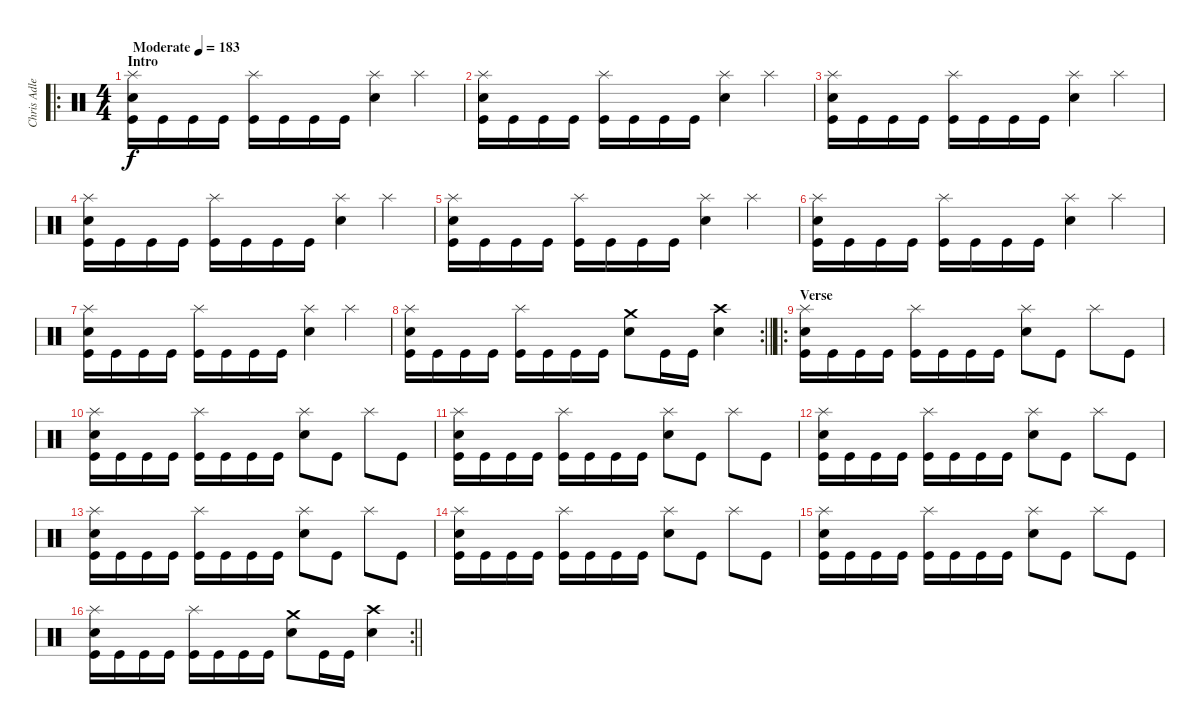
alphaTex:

\track ("Chris Adler" "Chris Adle") {instrument percussion}
\staff {score}
\articulation defaults
\ro
\ts (4 4)
\section ("" "Intro")
\tempo (183 "Moderate")
\clef neutral
\ks c
("Kick (hit)" "Snare (hit) 2" "Splash (hit)").16{dy f} "Kick (hit)".16 "Kick (hit)".16 "Kick (hit)".16 ("Kick (hit)" "Splash (hit)").16 "Kick (hit)".16 "Kick (hit)".16 "Kick (hit)".16 ("Splash (hit)" "Snare (hit) 2").4 "Splash (hit)".4 |
("Kick (hit)" "Snare (hit) 2" "Splash (hit)").16 "Kick (hit)".16 "Kick (hit)".16 "Kick (hit)".16 ("Kick (hit)" "Splash (hit)").16 "Kick (hit)".16 "Kick (hit)".16 "Kick (hit)".16 ("Splash (hit)" "Snare (hit) 2").4 "Splash (hit)".4 |
("Kick (hit)" "Snare (hit) 2" "Splash (hit)").16 "Kick (hit)".16 "Kick (hit)".16 "Kick (hit)".16 ("Kick (hit)" "Splash (hit)").16 "Kick (hit)".16 "Kick (hit)".16 "Kick (hit)".16 ("Splash (hit)" "Snare (hit) 2").4 "Splash (hit)".4 |
("Kick (hit)" "Snare (hit) 2" "Splash (hit)").16 "Kick (hit)".16 "Kick (hit)".16 "Kick (hit)".16 ("Kick (hit)" "Splash (hit)").16 "Kick (hit)".16 "Kick (hit)".16 "Kick (hit)".16 ("Splash (hit)" "Snare (hit) 2").4 "Splash (hit)".4 |
("Kick (hit)" "Snare (hit) 2" "Splash (hit)").16 "Kick (hit)".16 "Kick (hit)".16 "Kick (hit)".16 ("Kick (hit)" "Splash (hit)").16 "Kick (hit)".16 "Kick (hit)".16 "Kick (hit)".16 ("Splash (hit)" "Snare (hit) 2").4 "Splash (hit)".4 |
("Kick (hit)" "Snare (hit) 2" "Splash (hit)").16 "Kick (hit)".16 "Kick (hit)".16 "Kick (hit)".16 ("Kick (hit)" "Splash (hit)").16 "Kick (hit)".16 "Kick (hit)".16 "Kick (hit)".16 ("Splash (hit)" "Snare (hit) 2").4 "Splash (hit)".4 |
("Kick (hit)" "Snare (hit) 2" "Splash (hit)").16 "Kick (hit)".16 "Kick (hit)".16 "Kick (hit)".16 ("Kick (hit)" "Splash (hit)").16 "Kick (hit)".16 "Kick (hit)".16 "Kick (hit)".16 ("Splash (hit)" "Snare (hit) 2").4 "Splash (hit)".4 |
\rc 2
\barLineRight lightlight
("Kick (hit)" "Snare (hit) 2" "Splash (hit)").16 "Kick (hit)".16 "Kick (hit)".16 "Kick (hit)".16 ("Kick (hit)" "Splash (hit)").16 "Kick (hit)".16 "Kick (hit)".16 "Kick (hit)".16 ("Crash medium (hit)" "Snare (hit) 2").8 "Kick (hit)".16 "Kick (hit)".16 ("Crash high (hit)" "Snare (hit) 2").4 |
\ro
\section ("" "Verse")
("Kick (hit)" "Snare (hit) 2" "Splash (hit)").16 "Kick (hit)".16 "Kick (hit)".16 "Kick (hit)".16 ("Kick (hit)" "Splash (hit)").16 "Kick (hit)".16 "Kick (hit)".16 "Kick (hit)".16 ("Splash (hit)" "Snare (hit) 2").8 "Kick (hit)".8 "Splash (hit)".8 "Kick (hit)".8 |
("Kick (hit)" "Snare (hit) 2" "Splash (hit)").16 "Kick (hit)".16 "Kick (hit)".16 "Kick (hit)".16 ("Kick (hit)" "Splash (hit)").16 "Kick (hit)".16 "Kick (hit)".16 "Kick (hit)".16 ("Splash (hit)" "Snare (hit) 2").8 "Kick (hit)".8 "Splash (hit)".8 "Kick (hit)".8 |
("Kick (hit)" "Snare (hit) 2" "Splash (hit)").16 "Kick (hit)".16 "Kick (hit)".16 "Kick (hit)".16 ("Kick (hit)" "Splash (hit)").16 "Kick (hit)".16 "Kick (hit)".16 "Kick (hit)".16 ("Splash (hit)" "Snare (hit) 2").8 "Kick (hit)".8 "Splash (hit)".8 "Kick (hit)".8 |
("Kick (hit)" "Snare (hit) 2" "Splash (hit)").16 "Kick (hit)".16 "Kick (hit)".16 "Kick (hit)".16 ("Kick (hit)" "Splash (hit)").16 "Kick (hit)".16 "Kick (hit)".16 "Kick (hit)".16 ("Splash (hit)" "Snare (hit) 2").8 "Kick (hit)".8 "Splash (hit)".8 "Kick (hit)".8 |
("Kick (hit)" "Snare (hit) 2" "Splash (hit)").16 "Kick (hit)".16 "Kick (hit)".16 "Kick (hit)".16 ("Kick (hit)" "Splash (hit)").16 "Kick (hit)".16 "Kick (hit)".16 "Kick (hit)".16 ("Splash (hit)" "Snare (hit) 2").8 "Kick (hit)".8 "Splash (hit)".8 "Kick (hit)".8 |
("Kick (hit)" "Snare (hit) 2" "Splash (hit)").16 "Kick (hit)".16 "Kick (hit)".16 "Kick (hit)".16 ("Kick (hit)" "Splash (hit)").16 "Kick (hit)".16 "Kick (hit)".16 "Kick (hit)".16 ("Splash (hit)" "Snare (hit) 2").8 "Kick (hit)".8 "Splash (hit)".8 "Kick (hit)".8 |
("Kick (hit)" "Snare (hit) 2" "Splash (hit)").16 "Kick (hit)".16 "Kick (hit)".16 "Kick (hit)".16 ("Kick (hit)" "Splash (hit)").16 "Kick (hit)".16 "Kick (hit)".16 "Kick (hit)".16 ("Splash (hit)" "Snare (hit) 2").8 "Kick (hit)".8 "Splash (hit)".8 "Kick (hit)".8 |
\rc 2
\barLineRight lightlight
("Kick (hit)" "Snare (hit) 2" "Splash (hit)").16 "Kick (hit)".16 "Kick (hit)".16 "Kick (hit)".16 ("Kick (hit)" "Splash (hit)").16 "Kick (hit)".16 "Kick (hit)".16 "Kick (hit)".16 ("Crash medium (hit)" "Snare (hit) 2").8 "Kick (hit)".16 "Kick (hit)".16 ("Crash high (hit)" "Snare (hit) 2").4
